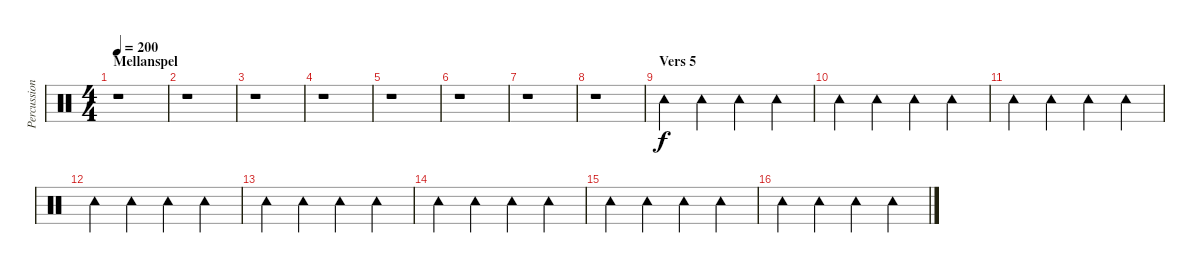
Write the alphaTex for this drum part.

\track ("Percussion" "Percussion") {instrument percussion}
\staff {score}
\articulation defaults
\ts (4 4)
\section ("" "Mellanspel")
\tempo 200
\clef neutral
\ks c
r.1{dy f} |
r.1 |
r.1 |
r.1 |
r.1 |
r.1 |
r.1 |
r.1 |
\section ("" "Vers 5")
"Tambourine (hit)".4 "Tambourine (hit)".4 "Tambourine (hit)".4 "Tambourine (hit)".4 |
"Tambourine (hit)".4 "Tambourine (hit)".4 "Tambourine (hit)".4 "Tambourine (hit)".4 |
"Tambourine (hit)".4 "Tambourine (hit)".4 "Tambourine (hit)".4 "Tambourine (hit)".4 |
"Tambourine (hit)".4 "Tambourine (hit)".4 "Tambourine (hit)".4 "Tambourine (hit)".4 |
"Tambourine (hit)".4 "Tambourine (hit)".4 "Tambourine (hit)".4 "Tambourine (hit)".4 |
"Tambourine (hit)".4 "Tambourine (hit)".4 "Tambourine (hit)".4 "Tambourine (hit)".4 |
"Tambourine (hit)".4 "Tambourine (hit)".4 "Tambourine (hit)".4 "Tambourine (hit)".4 |
"Tambourine (hit)".4 "Tambourine (hit)".4 "Tambourine (hit)".4 "Tambourine (hit)".4
